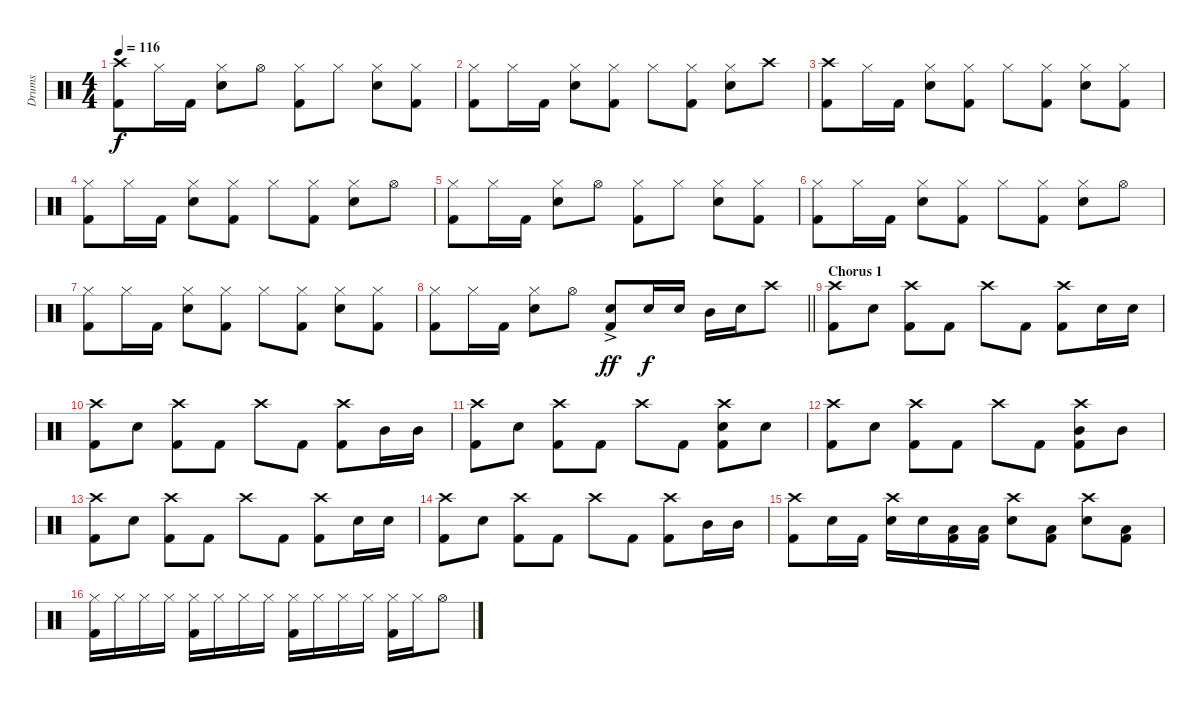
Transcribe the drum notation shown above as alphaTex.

\track ("Drums" "Drums") {instrument percussion}
\staff {score}
\articulation defaults
\ts (4 4)
\tempo 116
\clef neutral
\ks c
("Crash high (hit)" "Kick (hit) 2").8{dy f} "Hi-Hat (closed)".16 "Kick (hit) 2".16 ("Hi-Hat (closed)" "Snare (hit) 2").8 "Hi-Hat (open)".8 ("Hi-Hat (closed)" "Kick (hit) 2").8 "Hi-Hat (closed)".8 ("Hi-Hat (closed)" "Snare (hit) 2").8 ("Hi-Hat (closed)" "Kick (hit) 2").8 |
("Hi-Hat (closed)" "Kick (hit) 2").8 "Hi-Hat (closed)".16 "Kick (hit) 2".16 ("Hi-Hat (closed)" "Snare (hit) 2").8 ("Hi-Hat (closed)" "Kick (hit) 2").8 "Hi-Hat (closed)".8 ("Hi-Hat (closed)" "Kick (hit) 2").8 ("Hi-Hat (closed)" "Snare (hit) 2").8 "Crash high (hit)".8 |
("Crash high (hit)" "Kick (hit) 2").8 "Hi-Hat (closed)".16 "Kick (hit) 2".16 ("Hi-Hat (closed)" "Snare (hit) 2").8 ("Hi-Hat (closed)" "Kick (hit) 2").8 "Hi-Hat (closed)".8 ("Hi-Hat (closed)" "Kick (hit) 2").8 ("Hi-Hat (closed)" "Snare (hit) 2").8 ("Hi-Hat (closed)" "Kick (hit) 2").8 |
("Hi-Hat (closed)" "Kick (hit) 2").8 "Hi-Hat (closed)".16 "Kick (hit) 2".16 ("Hi-Hat (closed)" "Snare (hit) 2").8 ("Hi-Hat (closed)" "Kick (hit) 2").8 "Hi-Hat (closed)".8 ("Hi-Hat (closed)" "Kick (hit) 2").8 ("Hi-Hat (closed)" "Snare (hit) 2").8 "Hi-Hat (open)".8 |
("Hi-Hat (closed)" "Kick (hit) 2").8 "Hi-Hat (closed)".16 "Kick (hit) 2".16 ("Hi-Hat (closed)" "Snare (hit) 2").8 "Hi-Hat (open)".8 ("Hi-Hat (closed)" "Kick (hit) 2").8 "Hi-Hat (closed)".8 ("Hi-Hat (closed)" "Snare (hit) 2").8 ("Hi-Hat (closed)" "Kick (hit) 2").8 |
("Hi-Hat (closed)" "Kick (hit) 2").8 "Hi-Hat (closed)".16 "Kick (hit) 2".16 ("Hi-Hat (closed)" "Snare (hit) 2").8 ("Hi-Hat (closed)" "Kick (hit) 2").8 "Hi-Hat (closed)".8 ("Hi-Hat (closed)" "Kick (hit) 2").8 ("Hi-Hat (closed)" "Snare (hit) 2").8 "Hi-Hat (open)".8 |
("Hi-Hat (closed)" "Kick (hit) 2").8 "Hi-Hat (closed)".16 "Kick (hit) 2".16 ("Hi-Hat (closed)" "Snare (hit) 2").8 ("Hi-Hat (closed)" "Kick (hit) 2").8 "Hi-Hat (closed)".8 ("Hi-Hat (closed)" "Kick (hit) 2").8 ("Hi-Hat (closed)" "Snare (hit) 2").8 ("Hi-Hat (closed)" "Kick (hit) 2").8 |
\barLineRight lightlight
("Hi-Hat (closed)" "Kick (hit) 2").8 "Hi-Hat (closed)".16 "Kick (hit) 2".16 ("Hi-Hat (closed)" "Snare (hit) 2").8 "Hi-Hat (open)".8 ("Snare (hit) 2"{ac} "Kick (hit) 2").8{dy ff} "Snare (hit) 2".16{dy f} "Snare (hit) 2".16 "Mid Tom (hit)".16 "Snare (hit) 2".16 "Crash high (hit)".8 |
\section ("" "Chorus 1")
("Crash high (hit)" "Kick (hit) 2").8 "Snare (hit) 2".8 ("Crash high (hit)" "Kick (hit) 2").8 "Kick (hit) 2".8 "Crash high (hit)".8 "Kick (hit) 2".8 ("Crash high (hit)" "Kick (hit) 2").8 "Snare (hit) 2".16 "Snare (hit) 2".16 |
("Crash high (hit)" "Kick (hit) 2").8 "Snare (hit) 2".8 ("Crash high (hit)" "Kick (hit) 2").8 "Kick (hit) 2".8 "Crash high (hit)".8 "Kick (hit) 2".8 ("Crash high (hit)" "Kick (hit) 2").8 "Mid Tom (hit)".16 "Mid Tom (hit)".16 |
("Crash high (hit)" "Kick (hit) 2").8 "Snare (hit) 2".8 ("Crash high (hit)" "Kick (hit) 2").8 "Kick (hit) 2".8 "Crash high (hit)".8 "Kick (hit) 2".8 ("Crash high (hit)" "Snare (hit) 2" "Kick (hit) 2").8 "Snare (hit) 2".8 |
("Crash high (hit)" "Kick (hit) 2").8 "Snare (hit) 2".8 ("Crash high (hit)" "Kick (hit) 2").8 "Kick (hit) 2".8 "Crash high (hit)".8 "Kick (hit) 2".8 ("Crash high (hit)" "Mid Tom (hit)" "Kick (hit) 2").8 "Mid Tom (hit)".8 |
("Crash high (hit)" "Kick (hit) 2").8 "Snare (hit) 2".8 ("Crash high (hit)" "Kick (hit) 2").8 "Kick (hit) 2".8 "Crash high (hit)".8 "Kick (hit) 2".8 ("Crash high (hit)" "Kick (hit) 2").8 "Snare (hit) 2".16 "Snare (hit) 2".16 |
("Crash high (hit)" "Kick (hit) 2").8 "Snare (hit) 2".8 ("Crash high (hit)" "Kick (hit) 2").8 "Kick (hit) 2".8 "Crash high (hit)".8 "Kick (hit) 2".8 ("Crash high (hit)" "Kick (hit) 2").8 "Mid Tom (hit)".16 "Mid Tom (hit)".16 |
("Crash high (hit)" "Kick (hit) 2").8 "Snare (hit) 2".16 "Kick (hit) 2".16 ("Crash high (hit)" "Snare (hit) 2").16 "Snare (hit) 2".16 ("Low Floor Tom (hit)" "Kick (hit) 2").16 ("Low Floor Tom (hit)" "Kick (hit) 2").16 ("Crash high (hit)" "Snare (hit) 2").8 ("Low Floor Tom (hit)" "Kick (hit) 2").8 ("Crash high (hit)" "Snare (hit) 2").8 ("Low Floor Tom (hit)" "Kick (hit) 2").8 |
("Hi-Hat (closed)" "Kick (hit) 2").16 "Hi-Hat (closed)".16 "Hi-Hat (closed)".16 "Hi-Hat (closed)".16 ("Hi-Hat (closed)" "Kick (hit) 2").16 "Hi-Hat (closed)".16 "Hi-Hat (closed)".16 "Hi-Hat (closed)".16 ("Hi-Hat (closed)" "Kick (hit) 2").16 "Hi-Hat (closed)".16 "Hi-Hat (closed)".16 "Hi-Hat (closed)".16 ("Hi-Hat (closed)" "Kick (hit) 2").16 "Hi-Hat (closed)".16 "Hi-Hat (open)".8
